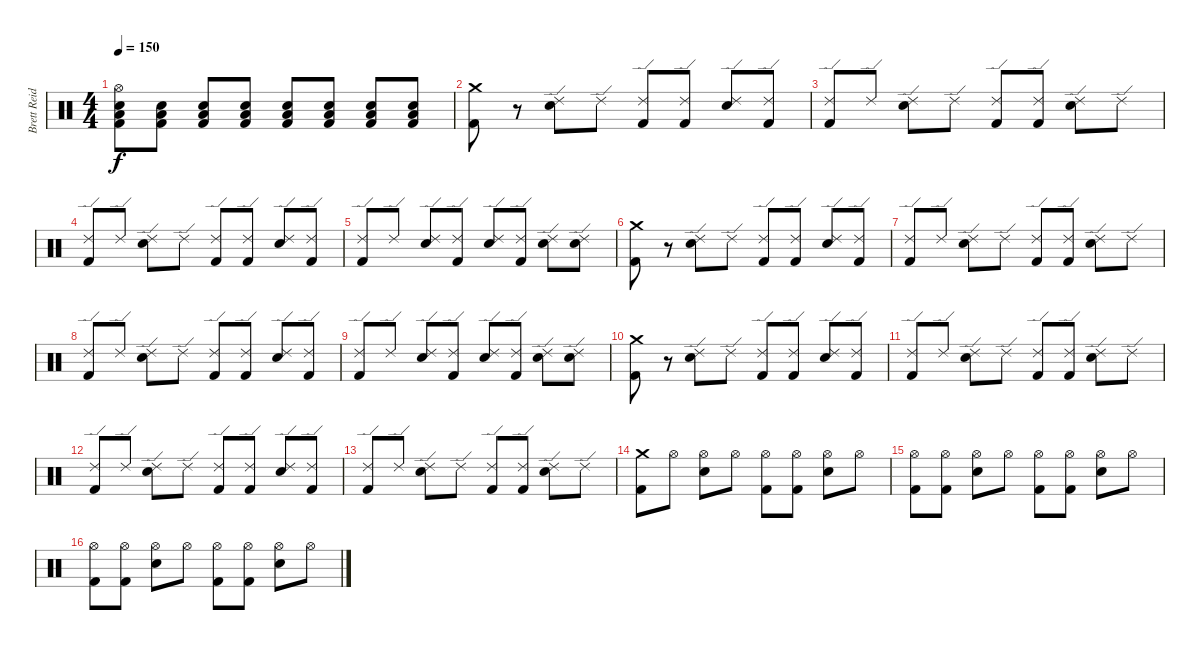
\track ("Brett Reid" "Brett Reid") {instrument percussion}
\staff {score}
\articulation defaults
\ts (4 4)
\tempo 150
\clef neutral
\ks c
("Hi-Hat (open)" "Low Floor Tom (hit)" "Snare (hit) 2" "Kick (hit) 2").8{dy f} ("Low Floor Tom (hit)" "Snare (hit) 2" "Kick (hit) 2").8 ("Low Floor Tom (hit)" "Snare (hit) 2" "Kick (hit) 2").8 ("Low Floor Tom (hit)" "Snare (hit) 2" "Kick (hit) 2").8 ("Low Floor Tom (hit)" "Snare (hit) 2" "Kick (hit) 2").8 ("Low Floor Tom (hit)" "Snare (hit) 2" "Kick (hit) 2").8 ("Low Floor Tom (hit)" "Snare (hit) 2" "Kick (hit) 2").8 ("Low Floor Tom (hit)" "Snare (hit) 2" "Kick (hit) 2").8 |
("Crash medium (hit)" "Kick (hit) 2").8 r.8 ("Ride (edge) 2" "Snare (hit) 2").8 "Ride (edge) 2".8 ("Ride (edge) 2" "Kick (hit) 2").8 ("Ride (edge) 2" "Kick (hit) 2").8 ("Ride (edge) 2" "Snare (hit) 2").8 ("Ride (edge) 2" "Kick (hit) 2").8 |
("Ride (edge) 2" "Kick (hit) 2").8 "Ride (edge) 2".8 ("Ride (edge) 2" "Snare (hit) 2").8 "Ride (edge) 2".8 ("Ride (edge) 2" "Kick (hit) 2").8 ("Ride (edge) 2" "Kick (hit) 2").8 ("Ride (edge) 2" "Snare (hit) 2").8 "Ride (edge) 2".8 |
("Ride (edge) 2" "Kick (hit) 2").8 "Ride (edge) 2".8 ("Ride (edge) 2" "Snare (hit) 2").8 "Ride (edge) 2".8 ("Ride (edge) 2" "Kick (hit) 2").8 ("Ride (edge) 2" "Kick (hit) 2").8 ("Ride (edge) 2" "Snare (hit) 2").8 ("Ride (edge) 2" "Kick (hit) 2").8 |
("Ride (edge) 2" "Kick (hit) 2").8 "Ride (edge) 2".8 ("Ride (edge) 2" "Snare (hit) 2").8 ("Ride (edge) 2" "Kick (hit) 2").8 ("Ride (edge) 2" "Snare (hit) 2").8 ("Ride (edge) 2" "Kick (hit) 2").8 ("Ride (edge) 2" "Snare (hit) 2").8 ("Ride (edge) 2" "Snare (hit) 2").8 |
("Crash medium (hit)" "Kick (hit) 2").8 r.8 ("Ride (edge) 2" "Snare (hit) 2").8 "Ride (edge) 2".8 ("Ride (edge) 2" "Kick (hit) 2").8 ("Ride (edge) 2" "Kick (hit) 2").8 ("Ride (edge) 2" "Snare (hit) 2").8 ("Ride (edge) 2" "Kick (hit) 2").8 |
("Ride (edge) 2" "Kick (hit) 2").8 "Ride (edge) 2".8 ("Ride (edge) 2" "Snare (hit) 2").8 "Ride (edge) 2".8 ("Ride (edge) 2" "Kick (hit) 2").8 ("Ride (edge) 2" "Kick (hit) 2").8 ("Ride (edge) 2" "Snare (hit) 2").8 "Ride (edge) 2".8 |
("Ride (edge) 2" "Kick (hit) 2").8 "Ride (edge) 2".8 ("Ride (edge) 2" "Snare (hit) 2").8 "Ride (edge) 2".8 ("Ride (edge) 2" "Kick (hit) 2").8 ("Ride (edge) 2" "Kick (hit) 2").8 ("Ride (edge) 2" "Snare (hit) 2").8 ("Ride (edge) 2" "Kick (hit) 2").8 |
("Ride (edge) 2" "Kick (hit) 2").8 "Ride (edge) 2".8 ("Ride (edge) 2" "Snare (hit) 2").8 ("Ride (edge) 2" "Kick (hit) 2").8 ("Ride (edge) 2" "Snare (hit) 2").8 ("Ride (edge) 2" "Kick (hit) 2").8 ("Ride (edge) 2" "Snare (hit) 2").8 ("Ride (edge) 2" "Snare (hit) 2").8 |
("Crash medium (hit)" "Kick (hit) 2").8 r.8 ("Ride (edge) 2" "Snare (hit) 2").8 "Ride (edge) 2".8 ("Ride (edge) 2" "Kick (hit) 2").8 ("Ride (edge) 2" "Kick (hit) 2").8 ("Ride (edge) 2" "Snare (hit) 2").8 ("Ride (edge) 2" "Kick (hit) 2").8 |
("Ride (edge) 2" "Kick (hit) 2").8 "Ride (edge) 2".8 ("Ride (edge) 2" "Snare (hit) 2").8 "Ride (edge) 2".8 ("Ride (edge) 2" "Kick (hit) 2").8 ("Ride (edge) 2" "Kick (hit) 2").8 ("Ride (edge) 2" "Snare (hit) 2").8 "Ride (edge) 2".8 |
("Ride (edge) 2" "Kick (hit) 2").8 "Ride (edge) 2".8 ("Ride (edge) 2" "Snare (hit) 2").8 "Ride (edge) 2".8 ("Ride (edge) 2" "Kick (hit) 2").8 ("Ride (edge) 2" "Kick (hit) 2").8 ("Ride (edge) 2" "Snare (hit) 2").8 ("Ride (edge) 2" "Kick (hit) 2").8 |
("Ride (edge) 2" "Kick (hit) 2").8 "Ride (edge) 2".8 ("Ride (edge) 2" "Snare (hit) 2").8 "Ride (edge) 2".8 ("Ride (edge) 2" "Kick (hit) 2").8 ("Ride (edge) 2" "Kick (hit) 2").8 ("Ride (edge) 2" "Snare (hit) 2").8 "Ride (edge) 2".8 |
("Crash medium (hit)" "Kick (hit) 2").8 "Hi-Hat (open)".8 ("Hi-Hat (open)" "Snare (hit) 2").8 "Hi-Hat (open)".8 ("Hi-Hat (open)" "Kick (hit) 2").8 ("Hi-Hat (open)" "Kick (hit) 2").8 ("Hi-Hat (open)" "Snare (hit) 2").8 "Hi-Hat (open)".8 |
("Hi-Hat (open)" "Kick (hit) 2").8 ("Hi-Hat (open)" "Kick (hit) 2").8 ("Hi-Hat (open)" "Snare (hit) 2").8 "Hi-Hat (open)".8 ("Hi-Hat (open)" "Kick (hit) 2").8 ("Hi-Hat (open)" "Kick (hit) 2").8 ("Hi-Hat (open)" "Snare (hit) 2").8 "Hi-Hat (open)".8 |
("Hi-Hat (open)" "Kick (hit) 2").8 ("Hi-Hat (open)" "Kick (hit) 2").8 ("Hi-Hat (open)" "Snare (hit) 2").8 "Hi-Hat (open)".8 ("Hi-Hat (open)" "Kick (hit) 2").8 ("Hi-Hat (open)" "Kick (hit) 2").8 ("Hi-Hat (open)" "Snare (hit) 2").8 "Hi-Hat (open)".8
